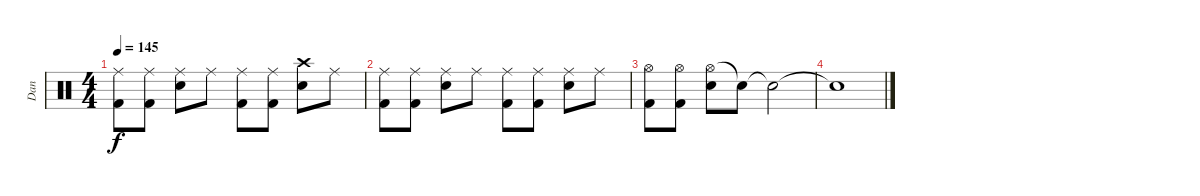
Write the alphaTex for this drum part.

\track ("Dan" "Dan") {instrument percussion}
\staff {score}
\articulation defaults
\ts (4 4)
\tempo 145
\clef neutral
\ks c
("Ride (middle)" "Kick (hit) 2").8{dy f} ("Ride (middle)" "Kick (hit) 2").8 ("Ride (middle)" "Snare (hit) 2").8 "Ride (middle)".8 ("Ride (middle)" "Kick (hit) 2").8 ("Ride (middle)" "Kick (hit) 2").8 ("Crash high (hit)" "Snare (hit) 2").8 "Ride (middle)".8 |
("Ride (middle)" "Kick (hit) 2").8 ("Ride (middle)" "Kick (hit) 2").8 ("Ride (middle)" "Snare (hit) 2").8 "Ride (middle)".8 ("Ride (middle)" "Kick (hit) 2").8 ("Ride (middle)" "Kick (hit) 2").8 ("Ride (middle)" "Snare (hit) 2").8 "Ride (middle)".8 |
("Hi-Hat (open)" "Kick (hit) 2").8 ("Hi-Hat (open)" "Kick (hit) 2").8 ("Hi-Hat (open)" "Snare (hit) 2").8 "Snare (hit)"{t}.8 "Snare (hit)"{t}.2 |
"Snare (hit)"{t}.1
